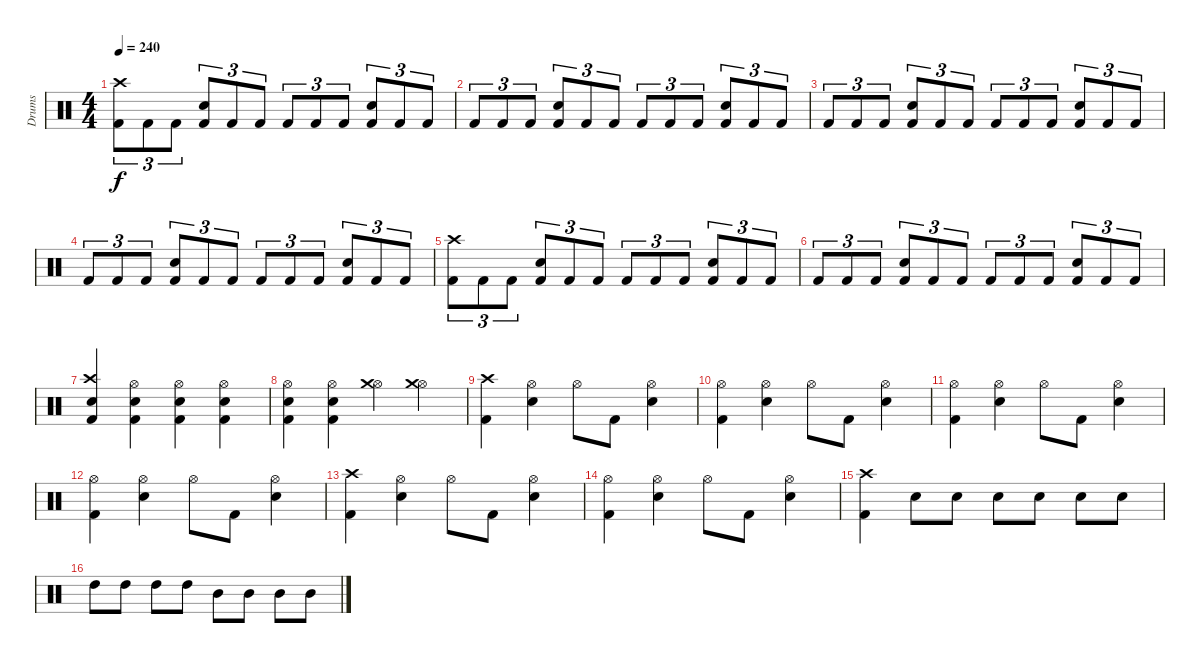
\track ("Drums" "Drums") {instrument percussion}
\staff {score}
\articulation defaults
\ts (4 4)
\tempo 240
\clef neutral
\ks c
("Kick (hit) 2" "Crash high (hit)").8{tu (3 2) dy f} "Kick (hit) 2".8{tu (3 2)} "Kick (hit) 2".8{tu (3 2)} ("Kick (hit) 2" "Electric Snare (hit)").8{tu (3 2)} "Kick (hit) 2".8{tu (3 2)} "Kick (hit) 2".8{tu (3 2)} "Kick (hit) 2".8{tu (3 2)} "Kick (hit) 2".8{tu (3 2)} "Kick (hit) 2".8{tu (3 2)} ("Kick (hit) 2" "Electric Snare (hit)").8{tu (3 2)} "Kick (hit) 2".8{tu (3 2)} "Kick (hit) 2".8{tu (3 2)} |
"Kick (hit) 2".8{tu (3 2)} "Kick (hit) 2".8{tu (3 2)} "Kick (hit) 2".8{tu (3 2)} ("Kick (hit) 2" "Electric Snare (hit)").8{tu (3 2)} "Kick (hit) 2".8{tu (3 2)} "Kick (hit) 2".8{tu (3 2)} "Kick (hit) 2".8{tu (3 2)} "Kick (hit) 2".8{tu (3 2)} "Kick (hit) 2".8{tu (3 2)} ("Kick (hit) 2" "Electric Snare (hit)").8{tu (3 2)} "Kick (hit) 2".8{tu (3 2)} "Kick (hit) 2".8{tu (3 2)} |
"Kick (hit) 2".8{tu (3 2)} "Kick (hit) 2".8{tu (3 2)} "Kick (hit) 2".8{tu (3 2)} ("Kick (hit) 2" "Electric Snare (hit)").8{tu (3 2)} "Kick (hit) 2".8{tu (3 2)} "Kick (hit) 2".8{tu (3 2)} "Kick (hit) 2".8{tu (3 2)} "Kick (hit) 2".8{tu (3 2)} "Kick (hit) 2".8{tu (3 2)} ("Kick (hit) 2" "Electric Snare (hit)").8{tu (3 2)} "Kick (hit) 2".8{tu (3 2)} "Kick (hit) 2".8{tu (3 2)} |
"Kick (hit) 2".8{tu (3 2)} "Kick (hit) 2".8{tu (3 2)} "Kick (hit) 2".8{tu (3 2)} ("Kick (hit) 2" "Electric Snare (hit)").8{tu (3 2)} "Kick (hit) 2".8{tu (3 2)} "Kick (hit) 2".8{tu (3 2)} "Kick (hit) 2".8{tu (3 2)} "Kick (hit) 2".8{tu (3 2)} "Kick (hit) 2".8{tu (3 2)} ("Kick (hit) 2" "Electric Snare (hit)").8{tu (3 2)} "Kick (hit) 2".8{tu (3 2)} "Kick (hit) 2".8{tu (3 2)} |
("Kick (hit) 2" "Crash high (hit)").8{tu (3 2)} "Kick (hit) 2".8{tu (3 2)} "Kick (hit) 2".8{tu (3 2)} ("Kick (hit) 2" "Electric Snare (hit)").8{tu (3 2)} "Kick (hit) 2".8{tu (3 2)} "Kick (hit) 2".8{tu (3 2)} "Kick (hit) 2".8{tu (3 2)} "Kick (hit) 2".8{tu (3 2)} "Kick (hit) 2".8{tu (3 2)} ("Kick (hit) 2" "Electric Snare (hit)").8{tu (3 2)} "Kick (hit) 2".8{tu (3 2)} "Kick (hit) 2".8{tu (3 2)} |
"Kick (hit) 2".8{tu (3 2)} "Kick (hit) 2".8{tu (3 2)} "Kick (hit) 2".8{tu (3 2)} ("Kick (hit) 2" "Electric Snare (hit)").8{tu (3 2)} "Kick (hit) 2".8{tu (3 2)} "Kick (hit) 2".8{tu (3 2)} "Kick (hit) 2".8{tu (3 2)} "Kick (hit) 2".8{tu (3 2)} "Kick (hit) 2".8{tu (3 2)} ("Kick (hit) 2" "Electric Snare (hit)").8{tu (3 2)} "Kick (hit) 2".8{tu (3 2)} "Kick (hit) 2".8{tu (3 2)} |
("Kick (hit) 2" "Electric Snare (hit)" "Crash high (hit)").4 ("Kick (hit) 2" "Electric Snare (hit)" "Hi-Hat (open)").4 ("Kick (hit) 2" "Electric Snare (hit)" "Hi-Hat (open)").4 ("Kick (hit) 2" "Electric Snare (hit)" "Hi-Hat (open)").4 |
("Kick (hit) 2" "Electric Snare (hit)" "Hi-Hat (open)").4 ("Kick (hit) 2" "Electric Snare (hit)" "Hi-Hat (open)").4 ("Hi-Hat (open)" "Crash medium (hit)").4 ("Hi-Hat (open)" "Crash medium (hit)").4 |
("Kick (hit) 2" "Crash high (hit)").4 ("Electric Snare (hit)" "Hi-Hat (open)").4 "Hi-Hat (open)".8 "Kick (hit) 2".8 ("Electric Snare (hit)" "Hi-Hat (open)").4 |
("Kick (hit) 2" "Hi-Hat (open)").4 ("Electric Snare (hit)" "Hi-Hat (open)").4 "Hi-Hat (open)".8 "Kick (hit) 2".8 ("Electric Snare (hit)" "Hi-Hat (open)").4 |
("Kick (hit) 2" "Hi-Hat (open)").4 ("Electric Snare (hit)" "Hi-Hat (open)").4 "Hi-Hat (open)".8 "Kick (hit) 2".8 ("Electric Snare (hit)" "Hi-Hat (open)").4 |
("Kick (hit) 2" "Hi-Hat (open)").4 ("Electric Snare (hit)" "Hi-Hat (open)").4 "Hi-Hat (open)".8 "Kick (hit) 2".8 ("Electric Snare (hit)" "Hi-Hat (open)").4 |
("Kick (hit) 2" "Crash high (hit)").4 ("Electric Snare (hit)" "Hi-Hat (open)").4 "Hi-Hat (open)".8 "Kick (hit) 2".8 ("Electric Snare (hit)" "Hi-Hat (open)").4 |
("Kick (hit) 2" "Hi-Hat (open)").4 ("Electric Snare (hit)" "Hi-Hat (open)").4 "Hi-Hat (open)".8 "Kick (hit) 2".8 ("Electric Snare (hit)" "Hi-Hat (open)").4 |
("Kick (hit) 2" "Crash high (hit)").4 "Electric Snare (hit)".8 "Electric Snare (hit)".8 "Electric Snare (hit)".8 "Electric Snare (hit)".8 "Electric Snare (hit)".8 "Electric Snare (hit)".8 |
"High Tom (hit)".8 "High Tom (hit)".8 "High Tom (hit)".8 "High Tom (hit)".8 "Mid Tom (hit)".8 "Mid Tom (hit)".8 "Mid Tom (hit)".8 "Mid Tom (hit)".8
